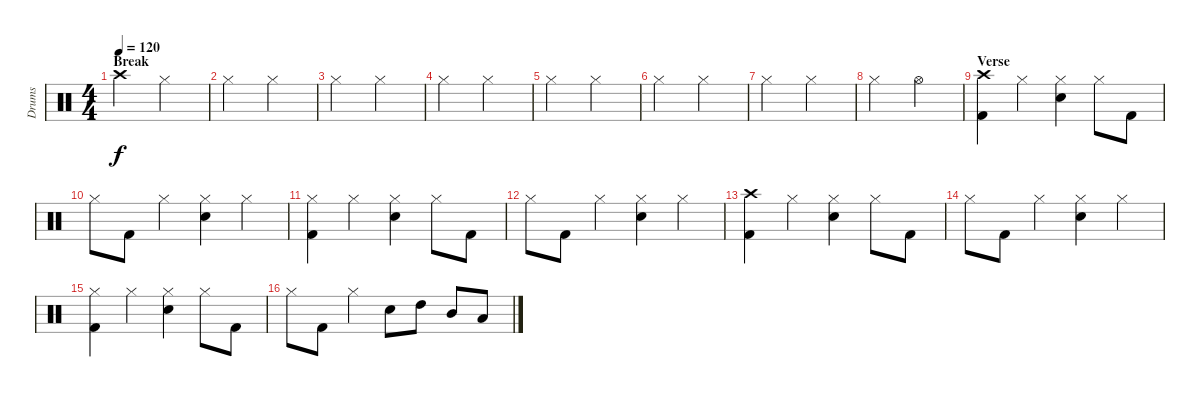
\track ("Drums" "Drums") {instrument percussion}
\staff {score}
\articulation defaults
\ts (4 4)
\section ("" "Break")
\tempo 120
\clef neutral
\ks c "Crash high (hit)".2{dy f} "Hi-Hat (closed)".2
|
"Hi-Hat (closed)".2 "Hi-Hat (closed)".2 |
"Hi-Hat (closed)".2 "Hi-Hat (closed)".2 |
"Hi-Hat (closed)".2 "Hi-Hat (closed)".2 |
"Hi-Hat (closed)".2 "Hi-Hat (closed)".2 |
"Hi-Hat (closed)".2 "Hi-Hat (closed)".2 |
"Hi-Hat (closed)".2 "Hi-Hat (closed)".2 |
"Hi-Hat (closed)".2 "Hi-Hat (open)".2 |
\section ("" "Verse")
("Crash high (hit)" "Kick (hit) 2").4 "Hi-Hat (closed)".4 ("Hi-Hat (closed)" "Electric Snare (hit)").4 "Hi-Hat (closed)".8 "Kick (hit) 2".8 |
"Hi-Hat (closed)".8 "Kick (hit) 2".8 "Hi-Hat (closed)".4 ("Hi-Hat (closed)" "Electric Snare (hit)").4 "Hi-Hat (closed)".4 |
("Hi-Hat (closed)" "Kick (hit) 2").4 "Hi-Hat (closed)".4 ("Hi-Hat (closed)" "Electric Snare (hit)").4 "Hi-Hat (closed)".8 "Kick (hit) 2".8 |
"Hi-Hat (closed)".8 "Kick (hit) 2".8 "Hi-Hat (closed)".4 ("Hi-Hat (closed)" "Electric Snare (hit)").4 "Hi-Hat (closed)".4 |
("Crash high (hit)" "Kick (hit) 2").4 "Hi-Hat (closed)".4 ("Hi-Hat (closed)" "Electric Snare (hit)").4 "Hi-Hat (closed)".8 "Kick (hit) 2".8 |
"Hi-Hat (closed)".8 "Kick (hit) 2".8 "Hi-Hat (closed)".4 ("Hi-Hat (closed)" "Electric Snare (hit)").4 "Hi-Hat (closed)".4 |
("Hi-Hat (closed)" "Kick (hit) 2").4 "Hi-Hat (closed)".4 ("Hi-Hat (closed)" "Electric Snare (hit)").4 "Hi-Hat (closed)".8 "Kick (hit) 2".8 |
"Hi-Hat (closed)".8 "Kick (hit) 2".8 "Hi-Hat (closed)".4 "Electric Snare (hit)".8 "High Tom (hit)".8 "Mid Tom (hit)".8 "Low Tom (hit)".8
